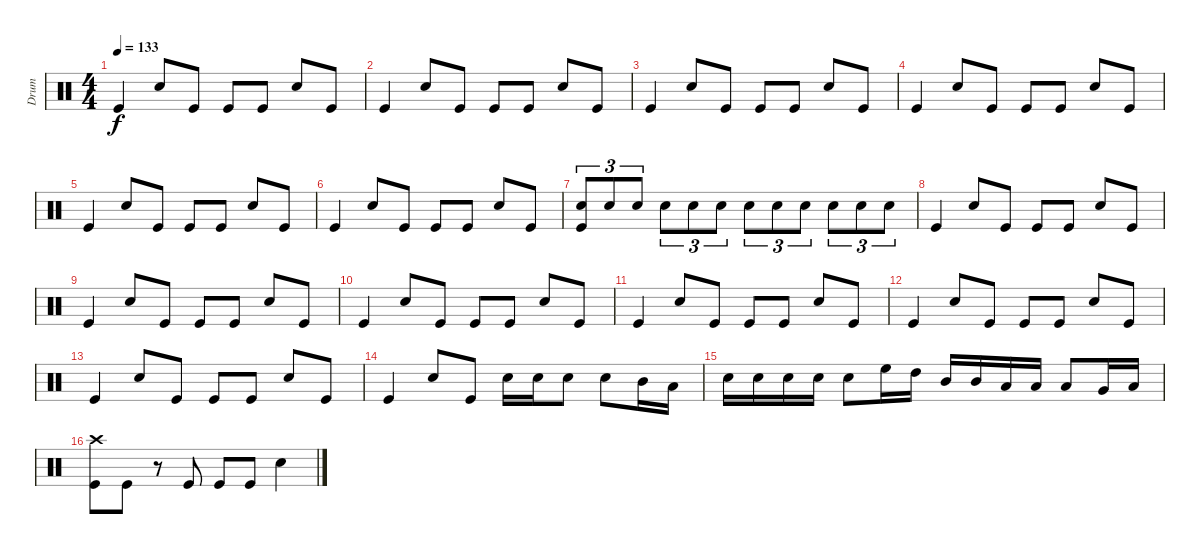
\track ("Drum" "Drum") {instrument percussion}
\staff {score}
\articulation defaults
\ts (4 4)
\tempo 133
\clef neutral
\ks c "Kick (hit)".4{dy f} "Snare (hit) 2".8 "Kick (hit)".8 "Kick (hit)".8 "Kick (hit)".8 "Snare (hit) 2".8 "Kick (hit)".8
|
"Kick (hit)".4 "Snare (hit) 2".8 "Kick (hit)".8 "Kick (hit)".8 "Kick (hit)".8 "Snare (hit) 2".8 "Kick (hit)".8 |
"Kick (hit)".4 "Snare (hit) 2".8 "Kick (hit)".8 "Kick (hit)".8 "Kick (hit)".8 "Snare (hit) 2".8 "Kick (hit)".8 |
"Kick (hit)".4 "Snare (hit) 2".8 "Kick (hit)".8 "Kick (hit)".8 "Kick (hit)".8 "Snare (hit) 2".8 "Kick (hit)".8 |
"Kick (hit)".4 "Snare (hit) 2".8 "Kick (hit)".8 "Kick (hit)".8 "Kick (hit)".8 "Snare (hit) 2".8 "Kick (hit)".8 |
"Kick (hit)".4 "Snare (hit) 2".8 "Kick (hit)".8 "Kick (hit)".8 "Kick (hit)".8 "Snare (hit) 2".8 "Kick (hit)".8 |
("Snare (hit) 2" "Kick (hit)").8{tu (3 2)} "Snare (hit) 2".8{tu (3 2)} "Snare (hit) 2".8{tu (3 2)} "Snare (hit) 2".8{tu (3 2)} "Snare (hit) 2".8{tu (3 2)} "Snare (hit) 2".8{tu (3 2)} "Snare (hit) 2".8{tu (3 2)} "Snare (hit) 2".8{tu (3 2)} "Snare (hit) 2".8{tu (3 2)} "Snare (hit) 2".8{tu (3 2)} "Snare (hit) 2".8{tu (3 2)} "Snare (hit) 2".8{tu (3 2)} |
"Kick (hit)".4 "Snare (hit) 2".8 "Kick (hit)".8 "Kick (hit)".8 "Kick (hit)".8 "Snare (hit) 2".8 "Kick (hit)".8 |
"Kick (hit)".4 "Snare (hit) 2".8 "Kick (hit)".8 "Kick (hit)".8 "Kick (hit)".8 "Snare (hit) 2".8 "Kick (hit)".8 |
"Kick (hit)".4 "Snare (hit) 2".8 "Kick (hit)".8 "Kick (hit)".8 "Kick (hit)".8 "Snare (hit) 2".8 "Kick (hit)".8 |
"Kick (hit)".4 "Snare (hit) 2".8 "Kick (hit)".8 "Kick (hit)".8 "Kick (hit)".8 "Snare (hit) 2".8 "Kick (hit)".8 |
"Kick (hit)".4 "Snare (hit) 2".8 "Kick (hit)".8 "Kick (hit)".8 "Kick (hit)".8 "Snare (hit) 2".8 "Kick (hit)".8 |
"Kick (hit)".4 "Snare (hit) 2".8 "Kick (hit)".8 "Kick (hit)".8 "Kick (hit)".8 "Snare (hit) 2".8 "Kick (hit)".8 |
"Kick (hit)".4 "Snare (hit) 2".8 "Kick (hit)".8 "Snare (hit) 2".16 "Snare (hit) 2".16 "Snare (hit) 2".8 "Snare (hit) 2".8 "Mid Tom (hit)".16 "Low Tom (hit)".16 |
"Snare (hit) 2".16 "Snare (hit) 2".16 "Snare (hit) 2".16 "Snare (hit) 2".16 "Snare (hit) 2".8 "High Floor Tom (hit)".16 "High Tom (hit)".16 "Mid Tom (hit)".16 "Mid Tom (hit)".16 "Low Tom (hit)".16 "Low Tom (hit)".16 "Low Tom (hit)".8 "Very Low Tom (hit)".16 "Low Floor Tom (hit)".16 |
("Crash high (hit)" "Kick (hit)").8 "Kick (hit)".8 r.8 "Kick (hit)".8 "Kick (hit)".8 "Kick (hit)".8 "Snare (hit) 2".4
